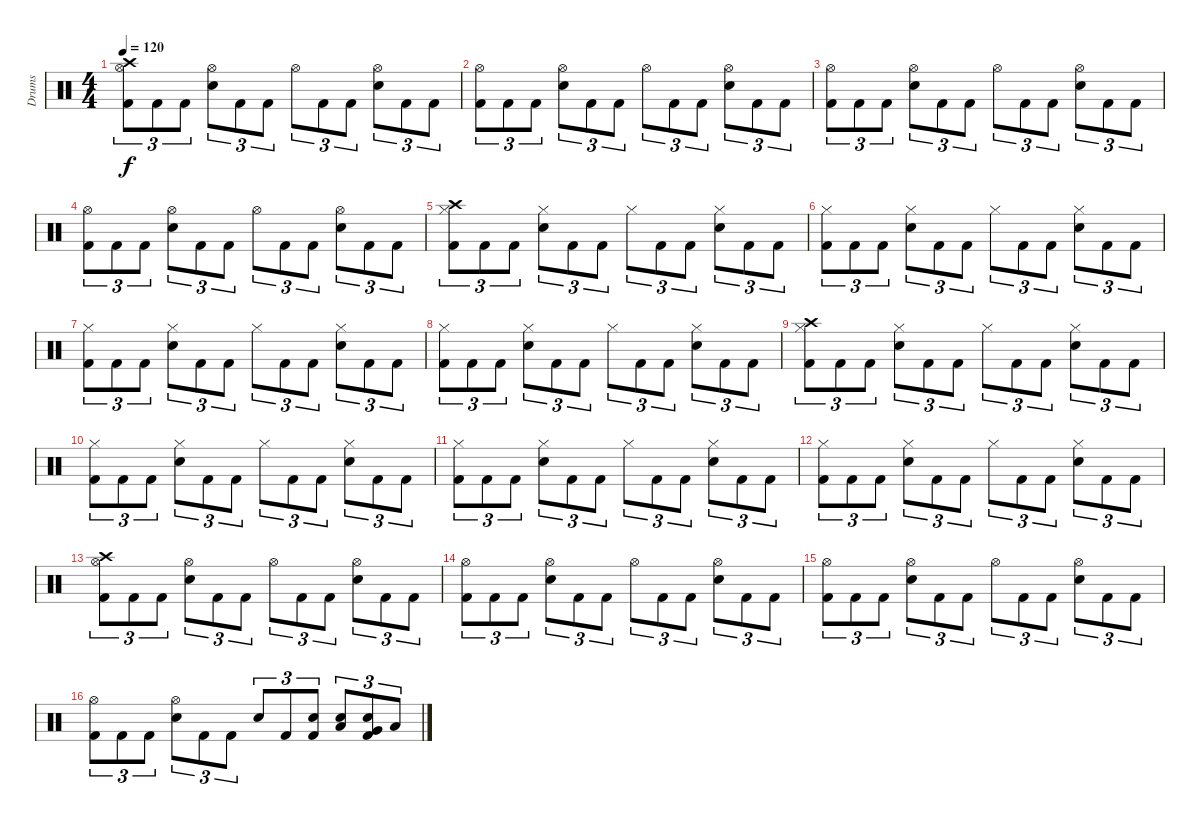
\track ("Drums" "Drums") {instrument percussion}
\staff {score}
\articulation defaults
\ts (4 4)
\tempo 120
\clef neutral
\ks c
("Kick (hit) 2" "Hi-Hat (open)" "Crash high (hit)").8{tu (3 2) dy f} "Kick (hit) 2".8{tu (3 2)} "Kick (hit) 2".8{tu (3 2)} ("Snare (hit) 2" "Hi-Hat (open)").8{tu (3 2)} "Kick (hit) 2".8{tu (3 2)} "Kick (hit) 2".8{tu (3 2)} "Hi-Hat (open)".8{tu (3 2)} "Kick (hit) 2".8{tu (3 2)} "Kick (hit) 2".8{tu (3 2)} ("Snare (hit) 2" "Hi-Hat (open)").8{tu (3 2)} "Kick (hit) 2".8{tu (3 2)} "Kick (hit) 2".8{tu (3 2)} |
("Kick (hit) 2" "Hi-Hat (open)").8{tu (3 2)} "Kick (hit) 2".8{tu (3 2)} "Kick (hit) 2".8{tu (3 2)} ("Snare (hit) 2" "Hi-Hat (open)").8{tu (3 2)} "Kick (hit) 2".8{tu (3 2)} "Kick (hit) 2".8{tu (3 2)} "Hi-Hat (open)".8{tu (3 2)} "Kick (hit) 2".8{tu (3 2)} "Kick (hit) 2".8{tu (3 2)} ("Snare (hit) 2" "Hi-Hat (open)").8{tu (3 2)} "Kick (hit) 2".8{tu (3 2)} "Kick (hit) 2".8{tu (3 2)} |
("Kick (hit) 2" "Hi-Hat (open)").8{tu (3 2)} "Kick (hit) 2".8{tu (3 2)} "Kick (hit) 2".8{tu (3 2)} ("Snare (hit) 2" "Hi-Hat (open)").8{tu (3 2)} "Kick (hit) 2".8{tu (3 2)} "Kick (hit) 2".8{tu (3 2)} "Hi-Hat (open)".8{tu (3 2)} "Kick (hit) 2".8{tu (3 2)} "Kick (hit) 2".8{tu (3 2)} ("Snare (hit) 2" "Hi-Hat (open)").8{tu (3 2)} "Kick (hit) 2".8{tu (3 2)} "Kick (hit) 2".8{tu (3 2)} |
("Kick (hit) 2" "Hi-Hat (open)").8{tu (3 2)} "Kick (hit) 2".8{tu (3 2)} "Kick (hit) 2".8{tu (3 2)} ("Snare (hit) 2" "Hi-Hat (open)").8{tu (3 2)} "Kick (hit) 2".8{tu (3 2)} "Kick (hit) 2".8{tu (3 2)} "Hi-Hat (open)".8{tu (3 2)} "Kick (hit) 2".8{tu (3 2)} "Kick (hit) 2".8{tu (3 2)} ("Snare (hit) 2" "Hi-Hat (open)").8{tu (3 2)} "Kick (hit) 2".8{tu (3 2)} "Kick (hit) 2".8{tu (3 2)} |
("Kick (hit) 2" "Hi-Hat (closed)" "Crash high (hit)").8{tu (3 2)} "Kick (hit) 2".8{tu (3 2)} "Kick (hit) 2".8{tu (3 2)} ("Snare (hit) 2" "Hi-Hat (closed)").8{tu (3 2)} "Kick (hit) 2".8{tu (3 2)} "Kick (hit) 2".8{tu (3 2)} "Hi-Hat (closed)".8{tu (3 2)} "Kick (hit) 2".8{tu (3 2)} "Kick (hit) 2".8{tu (3 2)} ("Snare (hit) 2" "Hi-Hat (closed)").8{tu (3 2)} "Kick (hit) 2".8{tu (3 2)} "Kick (hit) 2".8{tu (3 2)} |
("Kick (hit) 2" "Hi-Hat (closed)").8{tu (3 2)} "Kick (hit) 2".8{tu (3 2)} "Kick (hit) 2".8{tu (3 2)} ("Snare (hit) 2" "Hi-Hat (closed)").8{tu (3 2)} "Kick (hit) 2".8{tu (3 2)} "Kick (hit) 2".8{tu (3 2)} "Hi-Hat (closed)".8{tu (3 2)} "Kick (hit) 2".8{tu (3 2)} "Kick (hit) 2".8{tu (3 2)} ("Snare (hit) 2" "Hi-Hat (closed)").8{tu (3 2)} "Kick (hit) 2".8{tu (3 2)} "Kick (hit) 2".8{tu (3 2)} |
("Kick (hit) 2" "Hi-Hat (closed)").8{tu (3 2)} "Kick (hit) 2".8{tu (3 2)} "Kick (hit) 2".8{tu (3 2)} ("Snare (hit) 2" "Hi-Hat (closed)").8{tu (3 2)} "Kick (hit) 2".8{tu (3 2)} "Kick (hit) 2".8{tu (3 2)} "Hi-Hat (closed)".8{tu (3 2)} "Kick (hit) 2".8{tu (3 2)} "Kick (hit) 2".8{tu (3 2)} ("Snare (hit) 2" "Hi-Hat (closed)").8{tu (3 2)} "Kick (hit) 2".8{tu (3 2)} "Kick (hit) 2".8{tu (3 2)} |
("Kick (hit) 2" "Hi-Hat (closed)").8{tu (3 2)} "Kick (hit) 2".8{tu (3 2)} "Kick (hit) 2".8{tu (3 2)} ("Snare (hit) 2" "Hi-Hat (closed)").8{tu (3 2)} "Kick (hit) 2".8{tu (3 2)} "Kick (hit) 2".8{tu (3 2)} "Hi-Hat (closed)".8{tu (3 2)} "Kick (hit) 2".8{tu (3 2)} "Kick (hit) 2".8{tu (3 2)} ("Snare (hit) 2" "Hi-Hat (closed)").8{tu (3 2)} "Kick (hit) 2".8{tu (3 2)} "Kick (hit) 2".8{tu (3 2)} |
("Kick (hit) 2" "Hi-Hat (closed)" "Crash high (hit)").8{tu (3 2)} "Kick (hit) 2".8{tu (3 2)} "Kick (hit) 2".8{tu (3 2)} ("Snare (hit) 2" "Hi-Hat (closed)").8{tu (3 2)} "Kick (hit) 2".8{tu (3 2)} "Kick (hit) 2".8{tu (3 2)} "Hi-Hat (closed)".8{tu (3 2)} "Kick (hit) 2".8{tu (3 2)} "Kick (hit) 2".8{tu (3 2)} ("Snare (hit) 2" "Hi-Hat (closed)").8{tu (3 2)} "Kick (hit) 2".8{tu (3 2)} "Kick (hit) 2".8{tu (3 2)} |
("Kick (hit) 2" "Hi-Hat (closed)").8{tu (3 2)} "Kick (hit) 2".8{tu (3 2)} "Kick (hit) 2".8{tu (3 2)} ("Snare (hit) 2" "Hi-Hat (closed)").8{tu (3 2)} "Kick (hit) 2".8{tu (3 2)} "Kick (hit) 2".8{tu (3 2)} "Hi-Hat (closed)".8{tu (3 2)} "Kick (hit) 2".8{tu (3 2)} "Kick (hit) 2".8{tu (3 2)} ("Snare (hit) 2" "Hi-Hat (closed)").8{tu (3 2)} "Kick (hit) 2".8{tu (3 2)} "Kick (hit) 2".8{tu (3 2)} |
("Kick (hit) 2" "Hi-Hat (closed)").8{tu (3 2)} "Kick (hit) 2".8{tu (3 2)} "Kick (hit) 2".8{tu (3 2)} ("Snare (hit) 2" "Hi-Hat (closed)").8{tu (3 2)} "Kick (hit) 2".8{tu (3 2)} "Kick (hit) 2".8{tu (3 2)} "Hi-Hat (closed)".8{tu (3 2)} "Kick (hit) 2".8{tu (3 2)} "Kick (hit) 2".8{tu (3 2)} ("Snare (hit) 2" "Hi-Hat (closed)").8{tu (3 2)} "Kick (hit) 2".8{tu (3 2)} "Kick (hit) 2".8{tu (3 2)} |
("Kick (hit) 2" "Hi-Hat (closed)").8{tu (3 2)} "Kick (hit) 2".8{tu (3 2)} "Kick (hit) 2".8{tu (3 2)} ("Snare (hit) 2" "Hi-Hat (closed)").8{tu (3 2)} "Kick (hit) 2".8{tu (3 2)} "Kick (hit) 2".8{tu (3 2)} "Hi-Hat (closed)".8{tu (3 2)} "Kick (hit) 2".8{tu (3 2)} "Kick (hit) 2".8{tu (3 2)} ("Snare (hit) 2" "Hi-Hat (closed)").8{tu (3 2)} "Kick (hit) 2".8{tu (3 2)} "Kick (hit) 2".8{tu (3 2)} |
("Kick (hit) 2" "Hi-Hat (open)" "Crash high (hit)").8{tu (3 2)} "Kick (hit) 2".8{tu (3 2)} "Kick (hit) 2".8{tu (3 2)} ("Snare (hit) 2" "Hi-Hat (open)").8{tu (3 2)} "Kick (hit) 2".8{tu (3 2)} "Kick (hit) 2".8{tu (3 2)} "Hi-Hat (open)".8{tu (3 2)} "Kick (hit) 2".8{tu (3 2)} "Kick (hit) 2".8{tu (3 2)} ("Snare (hit) 2" "Hi-Hat (open)").8{tu (3 2)} "Kick (hit) 2".8{tu (3 2)} "Kick (hit) 2".8{tu (3 2)} |
("Kick (hit) 2" "Hi-Hat (open)").8{tu (3 2)} "Kick (hit) 2".8{tu (3 2)} "Kick (hit) 2".8{tu (3 2)} ("Snare (hit) 2" "Hi-Hat (open)").8{tu (3 2)} "Kick (hit) 2".8{tu (3 2)} "Kick (hit) 2".8{tu (3 2)} "Hi-Hat (open)".8{tu (3 2)} "Kick (hit) 2".8{tu (3 2)} "Kick (hit) 2".8{tu (3 2)} ("Snare (hit) 2" "Hi-Hat (open)").8{tu (3 2)} "Kick (hit) 2".8{tu (3 2)} "Kick (hit) 2".8{tu (3 2)} |
("Kick (hit) 2" "Hi-Hat (open)").8{tu (3 2)} "Kick (hit) 2".8{tu (3 2)} "Kick (hit) 2".8{tu (3 2)} ("Snare (hit) 2" "Hi-Hat (open)").8{tu (3 2)} "Kick (hit) 2".8{tu (3 2)} "Kick (hit) 2".8{tu (3 2)} "Hi-Hat (open)".8{tu (3 2)} "Kick (hit) 2".8{tu (3 2)} "Kick (hit) 2".8{tu (3 2)} ("Snare (hit) 2" "Hi-Hat (open)").8{tu (3 2)} "Kick (hit) 2".8{tu (3 2)} "Kick (hit) 2".8{tu (3 2)} |
("Kick (hit) 2" "Hi-Hat (open)").8{tu (3 2)} "Kick (hit) 2".8{tu (3 2)} "Kick (hit) 2".8{tu (3 2)} ("Snare (hit) 2" "Hi-Hat (open)").8{tu (3 2)} "Kick (hit) 2".8{tu (3 2)} "Kick (hit) 2".8{tu (3 2)} "Snare (hit) 2".8{tu (3 2)} "Kick (hit) 2".8{tu (3 2)} ("Kick (hit) 2" "Snare (hit) 2").8{tu (3 2)} ("Snare (hit) 2" "Low Tom (hit)").8{tu (3 2)} ("Kick (hit) 2" "Snare (hit) 2" "Very Low Tom (hit)").8{tu (3 2)} "Low Floor Tom (hit)".8{tu (3 2)}
